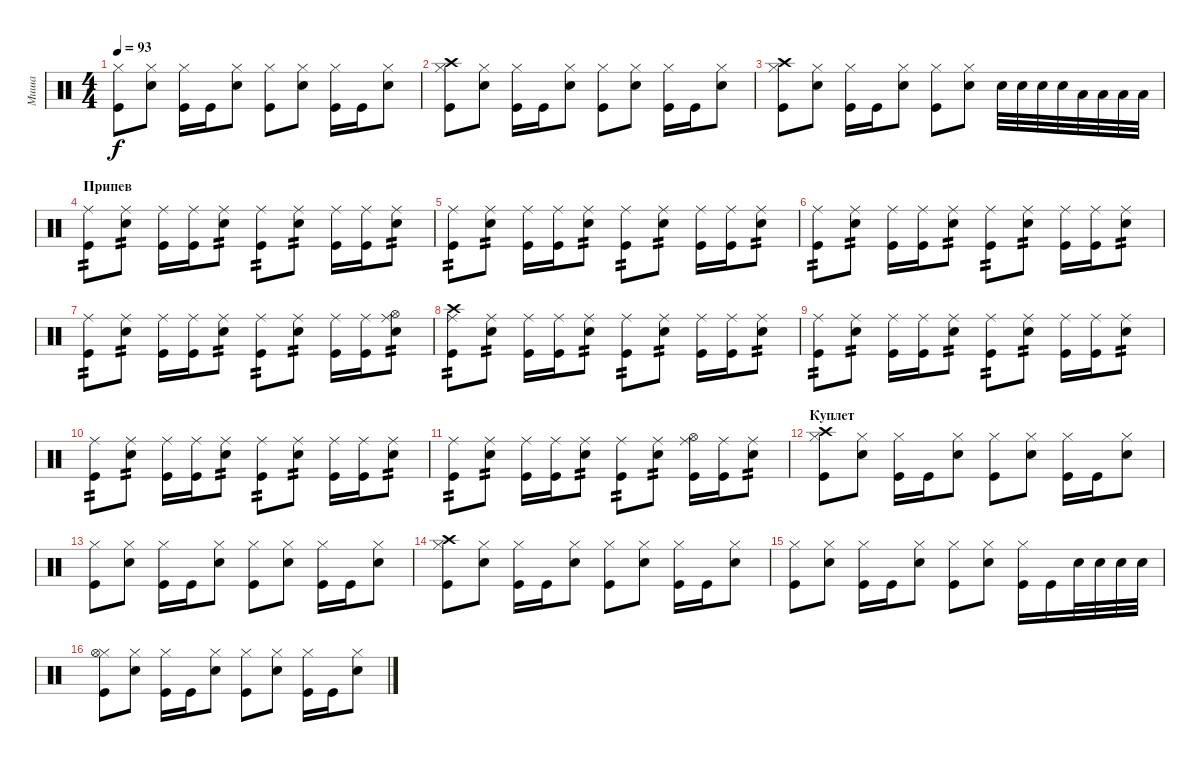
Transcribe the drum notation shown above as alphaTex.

\track ("Миша" "Миша") {instrument percussion}
\staff {score}
\articulation defaults
\ts (4 4)
\tempo 93
\clef neutral
\ks c
("Kick (hit)" "Hi-Hat (closed)").8{dy f} ("Electric Snare (hit)" "Hi-Hat (closed)").8 ("Kick (hit)" "Hi-Hat (closed)").16 "Kick (hit)".16 ("Electric Snare (hit)" "Hi-Hat (closed)").8 ("Kick (hit)" "Hi-Hat (closed)").8 ("Electric Snare (hit)" "Hi-Hat (closed)").8 ("Kick (hit)" "Hi-Hat (closed)").16 "Kick (hit)".16 ("Electric Snare (hit)" "Hi-Hat (closed)").8 |
("Kick (hit)" "Hi-Hat (closed)" "Crash high (hit)").8 ("Electric Snare (hit)" "Hi-Hat (closed)").8 ("Kick (hit)" "Hi-Hat (closed)").16 "Kick (hit)".16 ("Electric Snare (hit)" "Hi-Hat (closed)").8 ("Kick (hit)" "Hi-Hat (closed)").8 ("Electric Snare (hit)" "Hi-Hat (closed)").8 ("Kick (hit)" "Hi-Hat (closed)").16 "Kick (hit)".16 ("Electric Snare (hit)" "Hi-Hat (closed)").8 |
("Kick (hit)" "Hi-Hat (closed)" "Crash high (hit)").8 ("Electric Snare (hit)" "Hi-Hat (closed)").8 ("Kick (hit)" "Hi-Hat (closed)").16 "Kick (hit)".16 ("Electric Snare (hit)" "Hi-Hat (closed)").8 ("Kick (hit)" "Hi-Hat (closed)").8 ("Electric Snare (hit)" "Hi-Hat (closed)").8 "Electric Snare (hit)".32 "Electric Snare (hit)".32 "Electric Snare (hit)".32 "Electric Snare (hit)".32 "Low Tom (hit)".32 "Low Tom (hit)".32 "Low Tom (hit)".32 "Low Tom (hit)".32 |
\section ("" "Припев")
("Kick (hit)" "Ride (middle)").8{tp 2} ("Electric Snare (hit)" "Ride (middle)").8{tp 2} ("Kick (hit)" "Ride (middle)").16 ("Kick (hit)" "Ride (middle)").16 ("Electric Snare (hit)" "Ride (middle)").8{tp 2} ("Kick (hit)" "Ride (middle)").8{tp 2} ("Electric Snare (hit)" "Ride (middle)").8{tp 2} ("Kick (hit)" "Ride (middle)").16 ("Kick (hit)" "Ride (middle)").16 ("Electric Snare (hit)" "Ride (middle)").8{tp 2} |
("Kick (hit)" "Ride (middle)").8{tp 2} ("Electric Snare (hit)" "Ride (middle)").8{tp 2} ("Kick (hit)" "Ride (middle)").16 ("Kick (hit)" "Ride (middle)").16 ("Electric Snare (hit)" "Ride (middle)").8{tp 2} ("Kick (hit)" "Ride (middle)").8{tp 2} ("Electric Snare (hit)" "Ride (middle)").8{tp 2} ("Kick (hit)" "Ride (middle)").16 ("Kick (hit)" "Ride (middle)").16 ("Electric Snare (hit)" "Ride (middle)").8{tp 2} |
("Kick (hit)" "Ride (middle)").8{tp 2} ("Electric Snare (hit)" "Ride (middle)").8{tp 2} ("Kick (hit)" "Ride (middle)").16 ("Kick (hit)" "Ride (middle)").16 ("Electric Snare (hit)" "Ride (middle)").8{tp 2} ("Kick (hit)" "Ride (middle)").8{tp 2} ("Electric Snare (hit)" "Ride (middle)").8{tp 2} ("Kick (hit)" "Ride (middle)").16 ("Kick (hit)" "Ride (middle)").16 ("Electric Snare (hit)" "Ride (middle)").8{tp 2} |
("Kick (hit)" "Ride (middle)").8{tp 2} ("Electric Snare (hit)" "Ride (middle)").8{tp 2} ("Kick (hit)" "Ride (middle)").16 ("Kick (hit)" "Ride (middle)").16 ("Electric Snare (hit)" "Ride (middle)").8{tp 2} ("Kick (hit)" "Ride (middle)").8{tp 2} ("Electric Snare (hit)" "Ride (middle)").8{tp 2} ("Kick (hit)" "Ride (middle)").16 ("Kick (hit)" "Ride (middle)").16 ("Electric Snare (hit)" "Ride (middle)" "Hi-Hat (open)").8{tp 2} |
("Kick (hit)" "Ride (middle)" "Crash high (hit)").8{tp 2} ("Electric Snare (hit)" "Ride (middle)").8{tp 2} ("Kick (hit)" "Ride (middle)").16 ("Kick (hit)" "Ride (middle)").16 ("Electric Snare (hit)" "Ride (middle)").8{tp 2} ("Kick (hit)" "Ride (middle)").8{tp 2} ("Electric Snare (hit)" "Ride (middle)").8{tp 2} ("Kick (hit)" "Ride (middle)").16 ("Kick (hit)" "Ride (middle)").16 ("Electric Snare (hit)" "Ride (middle)").8{tp 2} |
("Kick (hit)" "Ride (middle)").8{tp 2} ("Electric Snare (hit)" "Ride (middle)").8{tp 2} ("Kick (hit)" "Ride (middle)").16 ("Kick (hit)" "Ride (middle)").16 ("Electric Snare (hit)" "Ride (middle)").8{tp 2} ("Kick (hit)" "Ride (middle)").8{tp 2} ("Electric Snare (hit)" "Ride (middle)").8{tp 2} ("Kick (hit)" "Ride (middle)").16 ("Kick (hit)" "Ride (middle)").16 ("Electric Snare (hit)" "Ride (middle)").8{tp 2} |
("Kick (hit)" "Ride (middle)").8{tp 2} ("Electric Snare (hit)" "Ride (middle)").8{tp 2} ("Kick (hit)" "Ride (middle)").16 ("Kick (hit)" "Ride (middle)").16 ("Electric Snare (hit)" "Ride (middle)").8{tp 2} ("Kick (hit)" "Ride (middle)").8{tp 2} ("Electric Snare (hit)" "Ride (middle)").8{tp 2} ("Kick (hit)" "Ride (middle)").16 ("Kick (hit)" "Ride (middle)").16 ("Electric Snare (hit)" "Ride (middle)").8{tp 2} |
("Kick (hit)" "Ride (middle)").8{tp 2} ("Electric Snare (hit)" "Ride (middle)").8{tp 2} ("Kick (hit)" "Ride (middle)").16 ("Kick (hit)" "Ride (middle)").16 ("Electric Snare (hit)" "Ride (middle)").8{tp 2} ("Kick (hit)" "Ride (middle)").8{tp 2} ("Electric Snare (hit)" "Ride (middle)").8{tp 2} ("Kick (hit)" "Ride (middle)" "Hi-Hat (open)").16 ("Kick (hit)" "Ride (middle)").16 ("Electric Snare (hit)" "Ride (middle)").8{tp 2} |
\section ("" "Куплет")
("Kick (hit)" "Hi-Hat (closed)" "Crash high (hit)").8 ("Electric Snare (hit)" "Hi-Hat (closed)").8 ("Kick (hit)" "Hi-Hat (closed)").16 "Kick (hit)".16 ("Electric Snare (hit)" "Hi-Hat (closed)").8 ("Kick (hit)" "Hi-Hat (closed)").8 ("Electric Snare (hit)" "Hi-Hat (closed)").8 ("Kick (hit)" "Hi-Hat (closed)").16 "Kick (hit)".16 ("Electric Snare (hit)" "Hi-Hat (closed)").8 |
("Kick (hit)" "Hi-Hat (closed)").8 ("Electric Snare (hit)" "Hi-Hat (closed)").8 ("Kick (hit)" "Hi-Hat (closed)").16 "Kick (hit)".16 ("Electric Snare (hit)" "Hi-Hat (closed)").8 ("Kick (hit)" "Hi-Hat (closed)").8 ("Electric Snare (hit)" "Hi-Hat (closed)").8 ("Kick (hit)" "Hi-Hat (closed)").16 "Kick (hit)".16 ("Electric Snare (hit)" "Hi-Hat (closed)").8 |
("Kick (hit)" "Hi-Hat (closed)" "Crash high (hit)").8 ("Electric Snare (hit)" "Hi-Hat (closed)").8 ("Kick (hit)" "Hi-Hat (closed)").16 "Kick (hit)".16 ("Electric Snare (hit)" "Hi-Hat (closed)").8 ("Kick (hit)" "Hi-Hat (closed)").8 ("Electric Snare (hit)" "Hi-Hat (closed)").8 ("Kick (hit)" "Hi-Hat (closed)").16 "Kick (hit)".16 ("Electric Snare (hit)" "Hi-Hat (closed)").8 |
("Kick (hit)" "Hi-Hat (closed)").8 ("Electric Snare (hit)" "Hi-Hat (closed)").8 ("Kick (hit)" "Hi-Hat (closed)").16 "Kick (hit)".16 ("Electric Snare (hit)" "Hi-Hat (closed)").8 ("Kick (hit)" "Hi-Hat (closed)").8 ("Electric Snare (hit)" "Hi-Hat (closed)").8 ("Kick (hit)" "Hi-Hat (closed)").16 "Kick (hit)".16 "Electric Snare (hit)".32 "Electric Snare (hit)".32 "Electric Snare (hit)".32 "Electric Snare (hit)".32 |
("Kick (hit)" "Hi-Hat (closed)" "Hi-Hat (open)").8 ("Electric Snare (hit)" "Hi-Hat (closed)").8 ("Kick (hit)" "Hi-Hat (closed)").16 "Kick (hit)".16 ("Electric Snare (hit)" "Hi-Hat (closed)").8 ("Kick (hit)" "Hi-Hat (closed)").8 ("Electric Snare (hit)" "Hi-Hat (closed)").8 ("Kick (hit)" "Hi-Hat (closed)").16 "Kick (hit)".16 ("Electric Snare (hit)" "Hi-Hat (closed)").8
